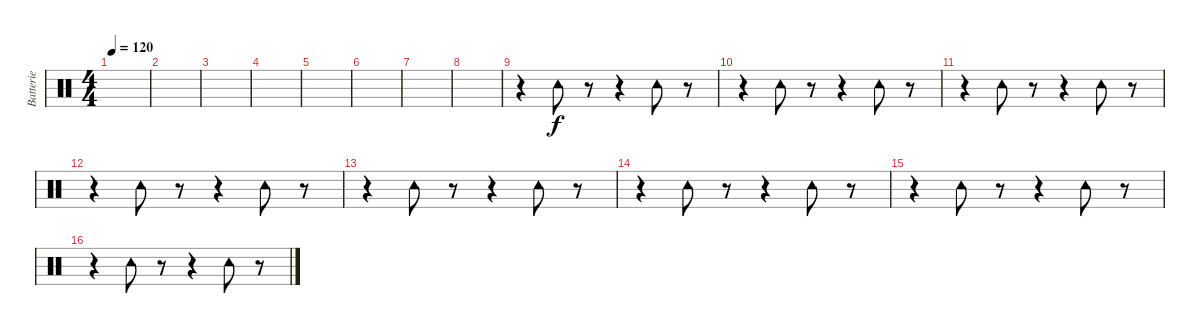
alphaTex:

\track ("Batterie" "Batterie") {instrument percussion}
\staff {score}
\articulation defaults
\ts (4 4)
\tempo 120
\clef neutral
\ks c
|
|
|
|
|
|
|
|
r.4 "Tambourine (hit)".8 r.8 r.4 "Tambourine (hit)".8 r.8 |
r.4 "Tambourine (hit)".8 r.8 r.4 "Tambourine (hit)".8 r.8 |
r.4 "Tambourine (hit)".8 r.8 r.4 "Tambourine (hit)".8 r.8 |
r.4 "Tambourine (hit)".8 r.8 r.4 "Tambourine (hit)".8 r.8 |
r.4 "Tambourine (hit)".8 r.8 r.4 "Tambourine (hit)".8 r.8 |
r.4 "Tambourine (hit)".8 r.8 r.4 "Tambourine (hit)".8 r.8 |
r.4 "Tambourine (hit)".8 r.8 r.4 "Tambourine (hit)".8 r.8 |
r.4 "Tambourine (hit)".8 r.8 r.4 "Tambourine (hit)".8 r.8
